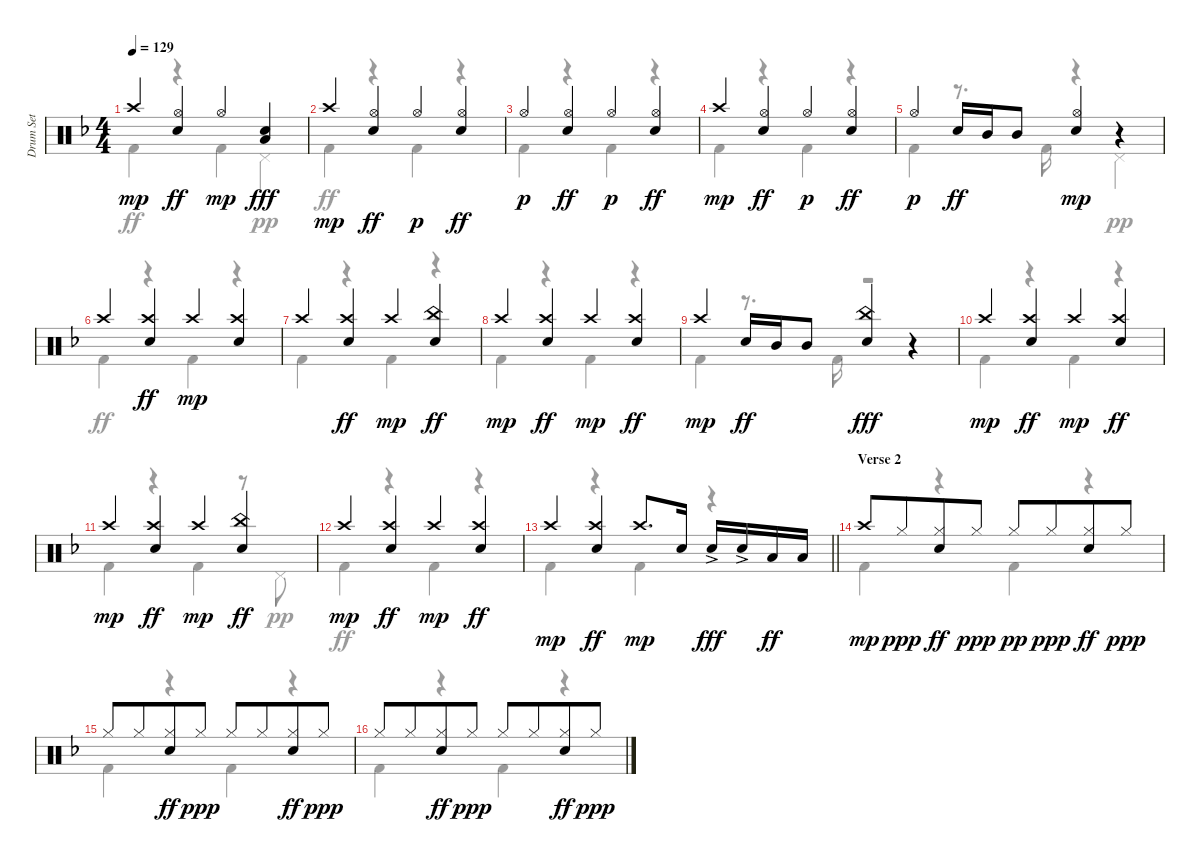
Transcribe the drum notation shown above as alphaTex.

\track ("Drum Set" "Drum Set") {instrument percussion}
\staff {score}
\articulation defaults
\voice
\ts (4 4)
\tempo 129
\clef neutral
\ks dminor "Crash high (hit)".4{dy mp}
("Hi-Hat (open)" "Electric Snare (hit)").4{dy ff} "Hi-Hat (open)".4{dy mp} ("Low Floor Tom (hit)" "Electric Snare (hit)").4{dy fff} |
"Crash high (hit)".4{dy mp} ("Hi-Hat (open)" "Electric Snare (hit)").4{dy ff} "Hi-Hat (open)".4{dy p} ("Hi-Hat (open)" "Electric Snare (hit)").4{dy ff} |
"Hi-Hat (open)".4{dy p} ("Hi-Hat (open)" "Electric Snare (hit)").4{dy ff} "Hi-Hat (open)".4{dy p} ("Hi-Hat (open)" "Electric Snare (hit)").4{dy ff} |
"Crash high (hit)".4{dy mp} ("Hi-Hat (open)" "Electric Snare (hit)").4{dy ff} "Hi-Hat (open)".4{dy p} ("Hi-Hat (open)" "Electric Snare (hit)").4{dy ff} |
"Hi-Hat (open)".4{dy p} "Electric Snare (hit)".16{dy ff} "Mid Tom (hit)".16 "Mid Tom (hit)".8 ("Electric Snare (hit)" "Hi-Hat (open)").4{dy mp} r.4 |
"Crash high (hit)".4 ("Crash high (hit)" "Electric Snare (hit)").4{dy ff} "Crash high (hit)".4{dy mp} ("Electric Snare (hit)" "Crash high (hit)").4 |
"Crash high (hit)".4 ("Crash high (hit)" "Electric Snare (hit)").4{dy ff} "Crash high (hit)".4{dy mp} ("China (hit)" "Electric Snare (hit)").4{dy ff} |
"Crash high (hit)".4{dy mp} ("Crash high (hit)" "Electric Snare (hit)").4{dy ff} "Crash high (hit)".4{dy mp} ("Crash high (hit)" "Electric Snare (hit)").4{dy ff} |
"Crash high (hit)".4{dy mp} "Electric Snare (hit)".16{dy ff} "Mid Tom (hit)".16 "Mid Tom (hit)".8 ("China (hit)" "Electric Snare (hit)").4{dy fff} r.4 |
"Crash high (hit)".4{dy mp} ("Crash high (hit)" "Electric Snare (hit)").4{dy ff} "Crash high (hit)".4{dy mp} ("Crash high (hit)" "Electric Snare (hit)").4{dy ff} |
"Crash high (hit)".4{dy mp} ("Crash high (hit)" "Electric Snare (hit)").4{dy ff} "Crash high (hit)".4{dy mp} ("China (hit)" "Electric Snare (hit)").4{dy ff} |
"Crash high (hit)".4{dy mp} ("Crash high (hit)" "Electric Snare (hit)").4{dy ff} "Crash high (hit)".4{dy mp} ("Crash high (hit)" "Electric Snare (hit)").4{dy ff} |
\barLineRight lightlight "Crash high (hit)".4{dy mp}
("Crash high (hit)" "Electric Snare (hit)").4{dy ff} "Crash high (hit)".8{d dy mp} "Electric Snare (hit)".16 "Electric Snare (hit)"{ac}.16{dy fff} "Electric Snare (hit)"{ac}.16 "Low Tom (hit)".16{dy ff} "Low Tom (hit)".16 |
\section ("" "Verse 2")
"Crash high (hit)".8{dy mp} "Hi-Hat (closed)".8{dy ppp beam merge} ("Hi-Hat (closed)" "Electric Snare (hit)").8{dy ff} "Hi-Hat (closed)".8{dy ppp} "Hi-Hat (closed)".8{dy pp} "Hi-Hat (closed)".8{dy ppp beam merge} ("Hi-Hat (closed)" "Electric Snare (hit)").8{dy ff} "Hi-Hat (closed)".8{dy ppp} |
"Hi-Hat (closed)".8 "Hi-Hat (closed)".8{beam merge} ("Hi-Hat (closed)" "Electric Snare (hit)").8{dy ff} "Hi-Hat (closed)".8{dy ppp} "Hi-Hat (closed)".8 "Hi-Hat (closed)".8{beam merge} ("Hi-Hat (closed)" "Electric Snare (hit)").8{dy ff} "Hi-Hat (closed)".8{dy ppp} |
"Hi-Hat (closed)".8 "Hi-Hat (closed)".8{beam merge} ("Hi-Hat (closed)" "Electric Snare (hit)").8{dy ff} "Hi-Hat (closed)".8{dy ppp} "Hi-Hat (closed)".8 "Hi-Hat (closed)".8{beam merge} ("Hi-Hat (closed)" "Electric Snare (hit)").8{dy ff} "Hi-Hat (closed)".8{dy ppp}
\voice
\clef neutral
\ottava regular
\simile none
\ks dminor "Kick (hit) 2".4{dy ff}
r.4 "Kick (hit) 2".4 "Pedal Hi-Hat (hit)".4{dy pp} |
"Kick (hit) 2".4{dy ff} r.4 "Kick (hit) 2".4 r.4 |
"Kick (hit) 2".4 r.4 "Kick (hit) 2".4 r.4 |
"Kick (hit) 2".4 r.4 "Kick (hit) 2".4 r.4 |
"Kick (hit) 2".4 r.8{d} "Kick (hit) 2".16 r.4 "Pedal Hi-Hat (hit)".4{dy pp} |
"Kick (hit) 2".4{dy ff} r.4 "Kick (hit) 2".4 r.4 |
"Kick (hit) 2".4 r.4 "Kick (hit) 2".4 r.4 |
"Kick (hit) 2".4 r.4 "Kick (hit) 2".4 r.4 |
"Kick (hit) 2".4 r.8{d} "Kick (hit) 2".16 r.2 |
"Kick (hit) 2".4 r.4 "Kick (hit) 2".4 r.4 |
"Kick (hit) 2".4 r.4 "Kick (hit) 2".4 r.8 "Pedal Hi-Hat (hit)".8{dy pp} |
"Kick (hit) 2".4{dy ff} r.4 "Kick (hit) 2".4 r.4 |
\barLineRight lightlight "Kick (hit) 2".4
r.4 "Kick (hit) 2".4 r.4 |
"Kick (hit) 2".4 r.4 "Kick (hit) 2".4 r.4 |
"Kick (hit) 2".4 r.4 "Kick (hit) 2".4 r.4 |
"Kick (hit) 2".4 r.4 "Kick (hit) 2".4 r.4
